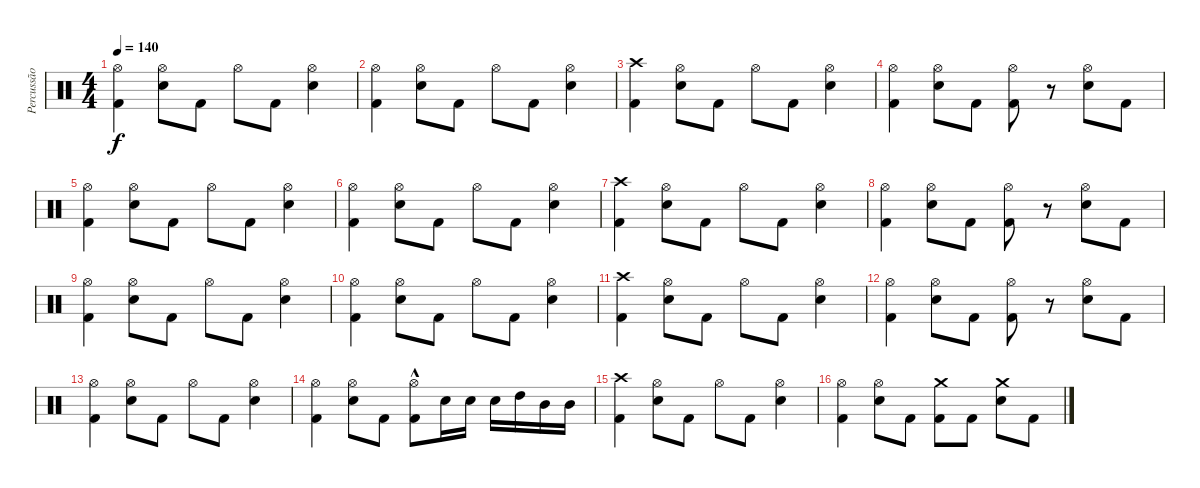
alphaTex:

\track ("Percussão" "Percussão") {instrument percussion}
\staff {score}
\articulation defaults
\ts (4 4)
\tempo 140
\clef neutral
\ks c
("Hi-Hat (open)" "Kick (hit) 2").4{dy f} ("Hi-Hat (open)" "Electric Snare (hit)").8 "Kick (hit) 2".8 "Hi-Hat (open)".8 "Kick (hit) 2".8 ("Hi-Hat (open)" "Electric Snare (hit)").4 |
("Hi-Hat (open)" "Kick (hit) 2").4 ("Hi-Hat (open)" "Electric Snare (hit)").8 "Kick (hit) 2".8 "Hi-Hat (open)".8 "Kick (hit) 2".8 ("Hi-Hat (open)" "Electric Snare (hit)").4 |
("Crash high (hit)" "Kick (hit) 2").4 ("Hi-Hat (open)" "Electric Snare (hit)").8 "Kick (hit) 2".8 "Hi-Hat (open)".8 "Kick (hit) 2".8 ("Hi-Hat (open)" "Electric Snare (hit)").4 |
("Hi-Hat (open)" "Kick (hit) 2").4 ("Hi-Hat (open)" "Electric Snare (hit)").8 "Kick (hit) 2".8 ("Hi-Hat (open)" "Kick (hit) 2").8 r.8 ("Hi-Hat (open)" "Electric Snare (hit)").8 "Kick (hit) 2".8 |
("Hi-Hat (open)" "Kick (hit) 2").4 ("Hi-Hat (open)" "Electric Snare (hit)").8 "Kick (hit) 2".8 "Hi-Hat (open)".8 "Kick (hit) 2".8 ("Hi-Hat (open)" "Electric Snare (hit)").4 |
("Hi-Hat (open)" "Kick (hit) 2").4 ("Hi-Hat (open)" "Electric Snare (hit)").8 "Kick (hit) 2".8 "Hi-Hat (open)".8 "Kick (hit) 2".8 ("Hi-Hat (open)" "Electric Snare (hit)").4 |
("Crash high (hit)" "Kick (hit) 2").4 ("Hi-Hat (open)" "Electric Snare (hit)").8 "Kick (hit) 2".8 "Hi-Hat (open)".8 "Kick (hit) 2".8 ("Hi-Hat (open)" "Electric Snare (hit)").4 |
("Hi-Hat (open)" "Kick (hit) 2").4 ("Hi-Hat (open)" "Electric Snare (hit)").8 "Kick (hit) 2".8 ("Hi-Hat (open)" "Kick (hit) 2").8 r.8 ("Hi-Hat (open)" "Electric Snare (hit)").8 "Kick (hit) 2".8 |
("Hi-Hat (open)" "Kick (hit) 2").4 ("Hi-Hat (open)" "Electric Snare (hit)").8 "Kick (hit) 2".8 "Hi-Hat (open)".8 "Kick (hit) 2".8 ("Hi-Hat (open)" "Electric Snare (hit)").4 |
("Hi-Hat (open)" "Kick (hit) 2").4 ("Hi-Hat (open)" "Electric Snare (hit)").8 "Kick (hit) 2".8 "Hi-Hat (open)".8 "Kick (hit) 2".8 ("Hi-Hat (open)" "Electric Snare (hit)").4 |
("Crash high (hit)" "Kick (hit) 2").4 ("Hi-Hat (open)" "Electric Snare (hit)").8 "Kick (hit) 2".8 "Hi-Hat (open)".8 "Kick (hit) 2".8 ("Hi-Hat (open)" "Electric Snare (hit)").4 |
("Hi-Hat (open)" "Kick (hit) 2").4 ("Hi-Hat (open)" "Electric Snare (hit)").8 "Kick (hit) 2".8 ("Hi-Hat (open)" "Kick (hit) 2").8 r.8 ("Hi-Hat (open)" "Electric Snare (hit)").8 "Kick (hit) 2".8 |
("Hi-Hat (open)" "Kick (hit) 2").4 ("Hi-Hat (open)" "Electric Snare (hit)").8 "Kick (hit) 2".8 "Hi-Hat (open)".8 "Kick (hit) 2".8 ("Hi-Hat (open)" "Electric Snare (hit)").4 |
("Hi-Hat (open)" "Kick (hit) 2").4 ("Hi-Hat (open)" "Electric Snare (hit)").8 "Kick (hit) 2".8 ("Hi-Hat (open)"{hac} "Kick (hit) 2").8 "Electric Snare (hit)".16 "Electric Snare (hit)".16 "Electric Snare (hit)".16 "High Tom (hit)".16 "Mid Tom (hit)".16 "Mid Tom (hit)".16 |
("Crash high (hit)" "Kick (hit) 2").4 ("Hi-Hat (open)" "Electric Snare (hit)").8 "Kick (hit) 2".8 "Hi-Hat (open)".8 "Kick (hit) 2".8 ("Hi-Hat (open)" "Electric Snare (hit)").4 |
("Hi-Hat (open)" "Kick (hit) 2").4 ("Hi-Hat (open)" "Electric Snare (hit)").8 "Kick (hit) 2".8 ("Crash medium (hit)" "Kick (hit) 2").8 "Kick (hit) 2".8 ("Crash medium (hit)" "Electric Snare (hit)").8 "Kick (hit) 2".8
